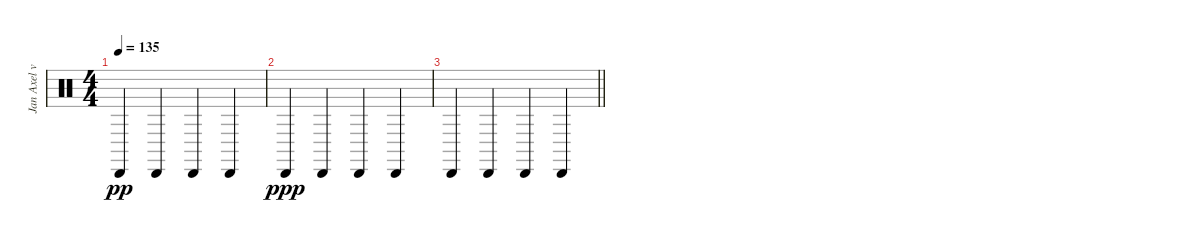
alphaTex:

\track ("Jan Axel von Bloomberg : Drums" "Jan Axel v") {instrument percussion}
\staff {score}
\articulation defaults
\ts (4 4)
\tempo 135
\clef neutral
\ks c "Cabasa (hit)".4{dy pp balance 0} "Cabasa (hit)".4{balance 16} "Cabasa (hit)".4{balance 0} "Cabasa (hit)".4{balance 16}
|
"Cabasa (hit)".4{dy ppp balance 0} "Cabasa (hit)".4{balance 16} "Cabasa (hit)".4{balance 0} "Cabasa (hit)".4{balance 16} |
\barLineRight lightlight "Cabasa (hit)".4{balance 0} "Cabasa (hit)".4{balance 16} "Cabasa (hit)".4{balance 0} "Cabasa (hit)".4{balance 16}
